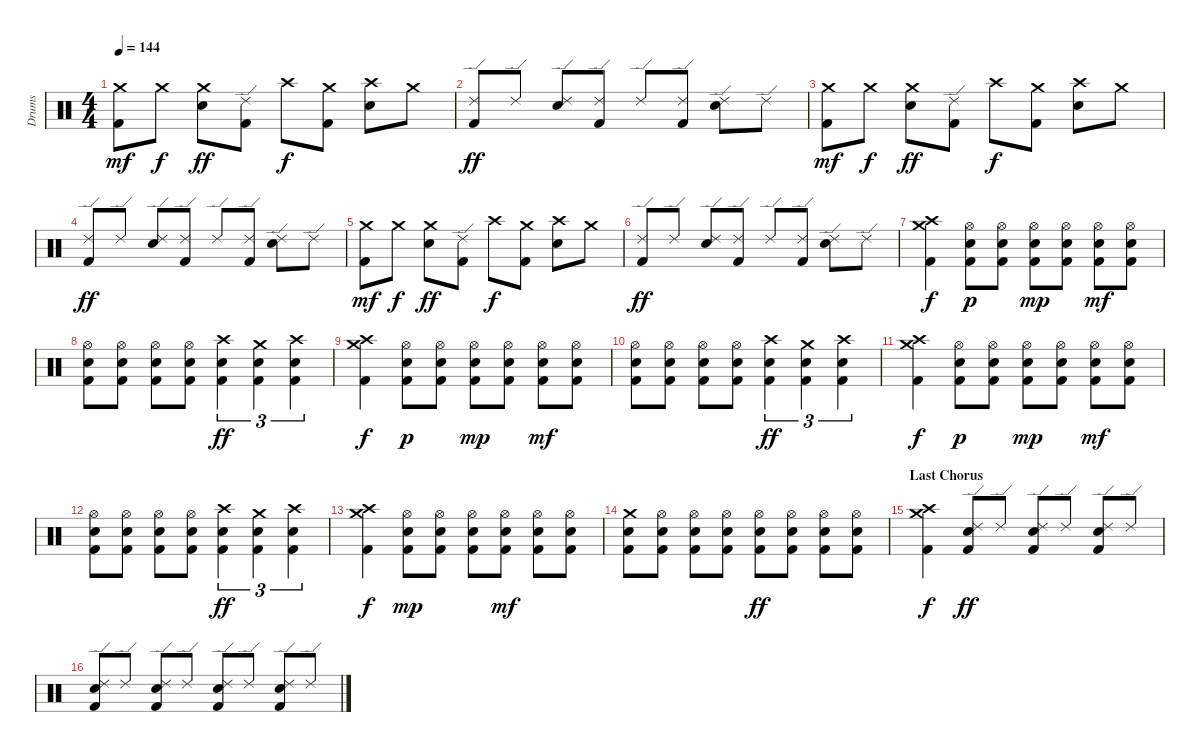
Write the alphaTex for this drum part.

\track ("Drums" "Drums") {instrument percussion}
\staff {score}
\articulation defaults
\ts (4 4)
\tempo 144
\clef neutral
\ks c
("Crash medium (hit)" "Kick (hit) 2").8{dy mf} "Crash medium (hit)".8{dy f} ("Crash medium (hit)" "Electric Snare (hit)").8{dy ff} ("Ride (edge) 2" "Kick (hit) 2").8 "Crash high (hit)".8{dy f} ("Crash medium (hit)" "Kick (hit) 2").8 ("Crash high (hit)" "Electric Snare (hit)").8 "Crash medium (hit)".8 |
("Ride (edge) 2" "Kick (hit) 2").8{dy ff} "Ride (edge) 2".8 ("Ride (edge) 2" "Electric Snare (hit)").8 ("Ride (edge) 2" "Kick (hit) 2").8 "Ride (edge) 2".8 ("Ride (edge) 2" "Kick (hit) 2").8 ("Ride (edge) 2" "Electric Snare (hit)").8 "Ride (edge) 2".8 |
("Crash medium (hit)" "Kick (hit) 2").8{dy mf} "Crash medium (hit)".8{dy f} ("Crash medium (hit)" "Electric Snare (hit)").8{dy ff} ("Ride (edge) 2" "Kick (hit) 2").8 "Crash high (hit)".8{dy f} ("Crash medium (hit)" "Kick (hit) 2").8 ("Crash high (hit)" "Electric Snare (hit)").8 "Crash medium (hit)".8 |
("Ride (edge) 2" "Kick (hit) 2").8{dy ff} "Ride (edge) 2".8 ("Ride (edge) 2" "Electric Snare (hit)").8 ("Ride (edge) 2" "Kick (hit) 2").8 "Ride (edge) 2".8 ("Ride (edge) 2" "Kick (hit) 2").8 ("Ride (edge) 2" "Electric Snare (hit)").8 "Ride (edge) 2".8 |
("Crash medium (hit)" "Kick (hit) 2").8{dy mf} "Crash medium (hit)".8{dy f} ("Crash medium (hit)" "Electric Snare (hit)").8{dy ff} ("Ride (edge) 2" "Kick (hit) 2").8 "Crash high (hit)".8{dy f} ("Crash medium (hit)" "Kick (hit) 2").8 ("Crash high (hit)" "Electric Snare (hit)").8 "Crash medium (hit)".8 |
("Ride (edge) 2" "Kick (hit) 2").8{dy ff} "Ride (edge) 2".8 ("Ride (edge) 2" "Electric Snare (hit)").8 ("Ride (edge) 2" "Kick (hit) 2").8 "Ride (edge) 2".8 ("Ride (edge) 2" "Kick (hit) 2").8 ("Ride (edge) 2" "Electric Snare (hit)").8 "Ride (edge) 2".8 |
("Crash medium (hit)" "Crash high (hit)" "Kick (hit) 2").4{dy f} ("Hi-Hat (open)" "Electric Snare (hit)" "Kick (hit) 2").8{dy p} ("Hi-Hat (open)" "Electric Snare (hit)" "Kick (hit) 2").8 ("Hi-Hat (open)" "Electric Snare (hit)" "Kick (hit) 2").8{dy mp} ("Hi-Hat (open)" "Electric Snare (hit)" "Kick (hit) 2").8 ("Hi-Hat (open)" "Electric Snare (hit)" "Kick (hit) 2").8{dy mf} ("Hi-Hat (open)" "Electric Snare (hit)" "Kick (hit) 2").8 |
("Hi-Hat (open)" "Electric Snare (hit)" "Kick (hit) 2").8 ("Hi-Hat (open)" "Electric Snare (hit)" "Kick (hit) 2").8 ("Hi-Hat (open)" "Electric Snare (hit)" "Kick (hit) 2").8 ("Hi-Hat (open)" "Electric Snare (hit)" "Kick (hit) 2").8 ("Crash high (hit)" "Electric Snare (hit)" "Kick (hit) 2").4{tu (3 2) dy ff} ("Crash medium (hit)" "Electric Snare (hit)" "Kick (hit) 2").4{tu (3 2)} ("Crash high (hit)" "Electric Snare (hit)" "Kick (hit) 2").4{tu (3 2)} |
("Crash medium (hit)" "Crash high (hit)" "Kick (hit) 2").4{dy f} ("Hi-Hat (open)" "Electric Snare (hit)" "Kick (hit) 2").8{dy p} ("Hi-Hat (open)" "Electric Snare (hit)" "Kick (hit) 2").8 ("Hi-Hat (open)" "Electric Snare (hit)" "Kick (hit) 2").8{dy mp} ("Hi-Hat (open)" "Electric Snare (hit)" "Kick (hit) 2").8 ("Hi-Hat (open)" "Electric Snare (hit)" "Kick (hit) 2").8{dy mf} ("Hi-Hat (open)" "Electric Snare (hit)" "Kick (hit) 2").8 |
("Hi-Hat (open)" "Electric Snare (hit)" "Kick (hit) 2").8 ("Hi-Hat (open)" "Electric Snare (hit)" "Kick (hit) 2").8 ("Hi-Hat (open)" "Electric Snare (hit)" "Kick (hit) 2").8 ("Hi-Hat (open)" "Electric Snare (hit)" "Kick (hit) 2").8 ("Crash high (hit)" "Electric Snare (hit)" "Kick (hit) 2").4{tu (3 2) dy ff} ("Crash medium (hit)" "Electric Snare (hit)" "Kick (hit) 2").4{tu (3 2)} ("Crash high (hit)" "Electric Snare (hit)" "Kick (hit) 2").4{tu (3 2)} |
("Crash medium (hit)" "Crash high (hit)" "Kick (hit) 2").4{dy f} ("Hi-Hat (open)" "Electric Snare (hit)" "Kick (hit) 2").8{dy p} ("Hi-Hat (open)" "Electric Snare (hit)" "Kick (hit) 2").8 ("Hi-Hat (open)" "Electric Snare (hit)" "Kick (hit) 2").8{dy mp} ("Hi-Hat (open)" "Electric Snare (hit)" "Kick (hit) 2").8 ("Hi-Hat (open)" "Electric Snare (hit)" "Kick (hit) 2").8{dy mf} ("Hi-Hat (open)" "Electric Snare (hit)" "Kick (hit) 2").8 |
("Hi-Hat (open)" "Electric Snare (hit)" "Kick (hit) 2").8 ("Hi-Hat (open)" "Electric Snare (hit)" "Kick (hit) 2").8 ("Hi-Hat (open)" "Electric Snare (hit)" "Kick (hit) 2").8 ("Hi-Hat (open)" "Electric Snare (hit)" "Kick (hit) 2").8 ("Crash high (hit)" "Electric Snare (hit)" "Kick (hit) 2").4{tu (3 2) dy ff} ("Crash medium (hit)" "Electric Snare (hit)" "Kick (hit) 2").4{tu (3 2)} ("Crash high (hit)" "Electric Snare (hit)" "Kick (hit) 2").4{tu (3 2)} |
("Crash medium (hit)" "Crash high (hit)" "Kick (hit) 2").4{dy f} ("Hi-Hat (open)" "Electric Snare (hit)" "Kick (hit) 2").8{dy mp} ("Hi-Hat (open)" "Electric Snare (hit)" "Kick (hit) 2").8 ("Hi-Hat (open)" "Electric Snare (hit)" "Kick (hit) 2").8 ("Hi-Hat (open)" "Electric Snare (hit)" "Kick (hit) 2").8{dy mf} ("Hi-Hat (open)" "Electric Snare (hit)" "Kick (hit) 2").8 ("Hi-Hat (open)" "Electric Snare (hit)" "Kick (hit) 2").8 |
("Crash medium (hit)" "Electric Snare (hit)" "Kick (hit) 2").8 ("Hi-Hat (open)" "Electric Snare (hit)" "Kick (hit) 2").8 ("Hi-Hat (open)" "Electric Snare (hit)" "Kick (hit) 2").8 ("Hi-Hat (open)" "Electric Snare (hit)" "Kick (hit) 2").8 ("Hi-Hat (open)" "Electric Snare (hit)" "Kick (hit) 2").8{dy ff} ("Hi-Hat (open)" "Electric Snare (hit)" "Kick (hit) 2").8 ("Hi-Hat (open)" "Electric Snare (hit)" "Kick (hit) 2").8 ("Hi-Hat (open)" "Electric Snare (hit)" "Kick (hit) 2").8 |
\section ("" "Last Chorus")
("Crash medium (hit)" "Crash high (hit)" "Kick (hit) 2").4{dy f} ("Ride (edge) 2" "Electric Snare (hit)" "Kick (hit) 2").8{dy ff} "Ride (edge) 2".8 ("Ride (edge) 2" "Electric Snare (hit)" "Kick (hit) 2").8 "Ride (edge) 2".8 ("Ride (edge) 2" "Electric Snare (hit)" "Kick (hit) 2").8 "Ride (edge) 2".8 |
("Ride (edge) 2" "Electric Snare (hit)" "Kick (hit) 2").8 "Ride (edge) 2".8 ("Ride (edge) 2" "Electric Snare (hit)" "Kick (hit) 2").8 "Ride (edge) 2".8 ("Ride (edge) 2" "Electric Snare (hit)" "Kick (hit) 2").8 "Ride (edge) 2".8 ("Ride (edge) 2" "Electric Snare (hit)" "Kick (hit) 2").8 "Ride (edge) 2".8
